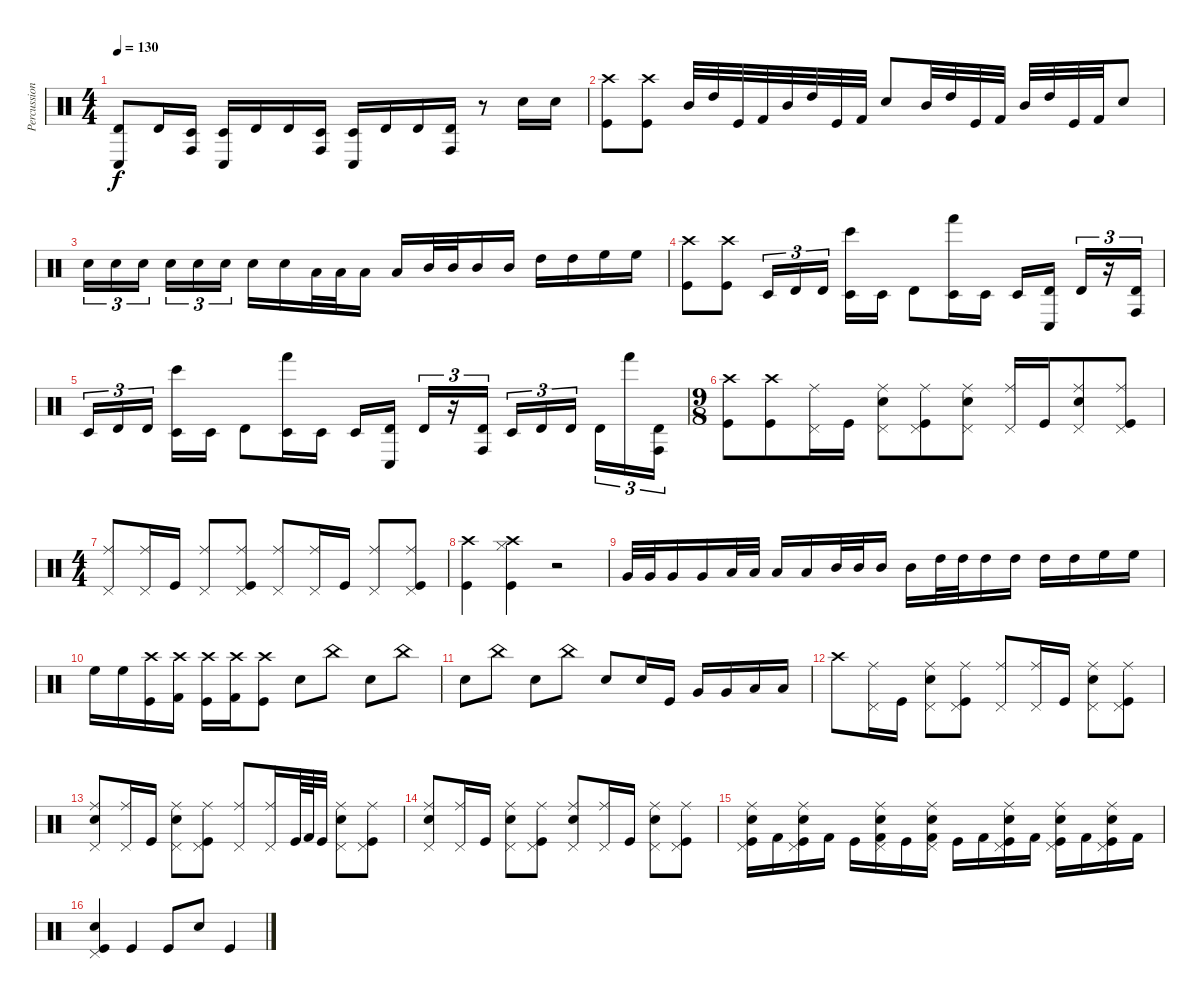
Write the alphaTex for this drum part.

\track ("Percussion" "Percussion") {instrument percussion}
\staff {score}
\articulation defaults
\ts (4 4)
\tempo 130
\clef neutral
\ks c
("Conga low (hit)" "Timbale high (hit)").8{dy f} "Timbale high (hit)".16 ("Conga high (hit)" "Timbale low (hit)").16 ("Conga low (hit)" "Timbale low (hit)").16 "Timbale high (hit)".16 "Timbale high (hit)".16 ("Conga high (hit)" "Timbale low (hit)").16 ("Conga low (hit)" "Timbale low (hit)").16 "Timbale high (hit)".16 "Timbale high (hit)".16 ("Conga high (hit)" "Timbale high (hit)").16 r.8 "Snare (hit) 2".16 "Snare (hit) 2".16 |
("Crash high (hit)" "Kick (hit)").8 ("Crash high (hit)" "Kick (hit)").8 "Mid Tom (hit)".32 "High Tom (hit)".32 "Kick (hit)".32 "Kick (hit) 2".32 "Mid Tom (hit)".32 "High Tom (hit)".32 "Kick (hit)".32 "Kick (hit) 2".32 "Hand Clap (hit)".8 "Mid Tom (hit)".32 "High Tom (hit)".32 "Kick (hit)".32 "Kick (hit) 2".32 "Mid Tom (hit)".32 "High Tom (hit)".32 "Kick (hit)".32 "Kick (hit) 2".32 "Snare (hit) 2".8 |
"Snare (hit) 2".16{tu (3 2)} "Snare (hit) 2".16{tu (3 2)} "Snare (hit) 2".16{tu (3 2)} "Snare (hit) 2".16{tu (3 2)} "Snare (hit) 2".16{tu (3 2)} "Snare (hit) 2".16{tu (3 2)} "Snare (hit) 2".16 "Snare (hit) 2".16 "Low Tom (hit)".32 "Low Tom (hit)".32 "Low Tom (hit)".16 "Low Tom (hit)".16 "Mid Tom (hit)".32 "Mid Tom (hit)".32 "Mid Tom (hit)".16 "Mid Tom (hit)".16 "High Tom (hit)".16 "High Tom (hit)".16 "High Floor Tom (hit)".16 "High Floor Tom (hit)".16 |
("Crash high (hit)" "Kick (hit)").8 ("Crash high (hit)" "Kick (hit)").8 "Timbale low (hit)".16{tu (3 2)} "Timbale high (hit)".16{tu (3 2)} "Timbale high (hit)".16{tu (3 2)} ("Bongo High (hit)" "Timbale low (hit)").16 "Timbale low (hit)".16 "Timbale high (hit)".8 ("Hand (hit)" "Timbale low (hit)").16 "Timbale low (hit)".16 "Timbale low (hit)".16 ("Conga low (hit)" "Timbale high (hit)").16 "Timbale high (hit)".16{tu (3 2)} r.16{tu (3 2)} ("Conga high (hit)" "Timbale high (hit)").16{tu (3 2)} |
"Timbale low (hit)".16{tu (3 2)} "Timbale high (hit)".16{tu (3 2)} "Timbale high (hit)".16{tu (3 2)} ("Bongo High (hit)" "Timbale low (hit)").16 "Timbale low (hit)".16 "Timbale high (hit)".8 ("Hand (hit)" "Timbale low (hit)").16 "Timbale low (hit)".16 "Timbale low (hit)".16 ("Conga low (hit)" "Timbale high (hit)").16 "Timbale high (hit)".16{tu (3 2)} r.16{tu (3 2)} ("Conga high (hit)" "Timbale high (hit)").16{tu (3 2)} "Timbale low (hit)".16{tu (3 2)} "Timbale high (hit)".16{tu (3 2)} "Timbale high (hit)".16{tu (3 2)} "Timbale high (hit)".16{tu (3 2)} "Hand (hit)".16{tu (3 2)} ("Conga high (hit)" "Timbale high (hit)").16{tu (3 2)} |
\ts (9 8)
("Crash high (hit)" "Kick (hit)").8 ("Crash high (hit)" "Kick (hit)").8 ("Pedal Hi-Hat (hit)" "Ride (middle)").16 "Kick (hit)".16 ("Pedal Hi-Hat (hit)" "Ride (middle)" "Snare (hit) 2").8 ("Pedal Hi-Hat (hit)" "Ride (middle)" "Kick (hit)").8 ("Pedal Hi-Hat (hit)" "Ride (middle)" "Snare (hit) 2").8 ("Pedal Hi-Hat (hit)" "Ride (middle)").16 "Kick (hit)".16 ("Pedal Hi-Hat (hit)" "Ride (middle)" "Snare (hit) 2").8 ("Pedal Hi-Hat (hit)" "Ride (middle)" "Kick (hit)").8 |
\ts (4 4)
("Pedal Hi-Hat (hit)" "Ride (middle)").8 ("Pedal Hi-Hat (hit)" "Ride (middle)").16 "Kick (hit)".16 ("Pedal Hi-Hat (hit)" "Ride (middle)").8 ("Pedal Hi-Hat (hit)" "Ride (middle)" "Kick (hit)").8 ("Pedal Hi-Hat (hit)" "Ride (middle)").8 ("Pedal Hi-Hat (hit)" "Ride (middle)").16 "Kick (hit)".16 ("Pedal Hi-Hat (hit)" "Ride (middle)").8 ("Pedal Hi-Hat (hit)" "Ride (middle)" "Kick (hit)").8 |
("Crash high (hit)" "Kick (hit)").4 ("Crash high (hit)" "Hi-Hat (closed)" "Kick (hit)").4 r.2 |
"Very Low Tom (hit)".32 "Very Low Tom (hit)".32 "Very Low Tom (hit)".16 "Very Low Tom (hit)".16 "Low Tom (hit)".32 "Low Tom (hit)".32 "Low Tom (hit)".16 "Low Tom (hit)".16 "Mid Tom (hit)".32 "Mid Tom (hit)".32 "Mid Tom (hit)".16 "Mid Tom (hit)".16 "High Tom (hit)".32 "High Tom (hit)".32 "High Tom (hit)".16 "High Tom (hit)".16 "High Tom (hit)".16 "High Tom (hit)".16 "High Floor Tom (hit)".16 "High Floor Tom (hit)".16 |
"High Floor Tom (hit)".16 "High Floor Tom (hit)".16 ("Kick (hit)" "Crash high (hit)").16 ("Kick (hit) 2" "Crash high (hit)").16 ("Kick (hit)" "Crash high (hit)").16 ("Kick (hit) 2" "Crash high (hit)").16 ("Kick (hit)" "Crash high (hit)").8 "Snare (hit) 2".8 "China (hit)".8 "Snare (hit) 2".8 "China (hit)".8 |
"Snare (hit) 2".8 "China (hit)".8 "Snare (hit) 2".8 "China (hit)".8 "Snare (hit) 2".8 "Snare (hit) 2".16 "Kick (hit)".16 "Very Low Tom (hit)".16 "Very Low Tom (hit)".16 "Low Tom (hit)".16 "Low Tom (hit)".16 |
"Crash high (hit)".8 ("Pedal Hi-Hat (hit)" "Ride (middle)").16 "Kick (hit)".16 ("Pedal Hi-Hat (hit)" "Ride (middle)" "Snare (hit) 2").8 ("Pedal Hi-Hat (hit)" "Ride (middle)" "Kick (hit)").8 ("Pedal Hi-Hat (hit)" "Ride (middle)").8 ("Pedal Hi-Hat (hit)" "Ride (middle)").16 "Kick (hit)".16 ("Pedal Hi-Hat (hit)" "Ride (middle)" "Snare (hit) 2").8 ("Pedal Hi-Hat (hit)" "Ride (middle)" "Kick (hit)").8 |
("Pedal Hi-Hat (hit)" "Ride (middle)" "Snare (hit) 2").8 ("Pedal Hi-Hat (hit)" "Ride (middle)").16 "Kick (hit)".16 ("Pedal Hi-Hat (hit)" "Ride (middle)" "Snare (hit) 2").8 ("Pedal Hi-Hat (hit)" "Ride (middle)" "Kick (hit)").8 ("Pedal Hi-Hat (hit)" "Ride (middle)").8 ("Pedal Hi-Hat (hit)" "Ride (middle)").16 "Kick (hit)".64 "Kick (hit) 2".64 "Kick (hit)".32 ("Pedal Hi-Hat (hit)" "Ride (middle)" "Snare (hit) 2").8 ("Pedal Hi-Hat (hit)" "Ride (middle)" "Kick (hit)").8 |
("Pedal Hi-Hat (hit)" "Ride (middle)" "Snare (hit) 2").8 ("Pedal Hi-Hat (hit)" "Ride (middle)").16 "Kick (hit)".16 ("Pedal Hi-Hat (hit)" "Ride (middle)" "Snare (hit) 2").8 ("Pedal Hi-Hat (hit)" "Ride (middle)" "Kick (hit)").8 ("Pedal Hi-Hat (hit)" "Ride (middle)" "Snare (hit) 2").8 ("Pedal Hi-Hat (hit)" "Ride (middle)").16 "Kick (hit)".16 ("Pedal Hi-Hat (hit)" "Ride (middle)" "Snare (hit) 2").8 ("Pedal Hi-Hat (hit)" "Ride (middle)" "Kick (hit)").8 |
("Snare (hit) 2" "Pedal Hi-Hat (hit)" "Ride (middle)" "Kick (hit)").16 "Kick (hit) 2".16 ("Snare (hit) 2" "Pedal Hi-Hat (hit)" "Ride (middle)" "Kick (hit)").16 "Kick (hit) 2".16 "Kick (hit)".16 ("Snare (hit) 2" "Pedal Hi-Hat (hit)" "Ride (middle)" "Kick (hit) 2").16 "Kick (hit)".16 ("Snare (hit) 2" "Pedal Hi-Hat (hit)" "Ride (middle)" "Kick (hit) 2").16 "Kick (hit)".16 "Kick (hit) 2".16 ("Snare (hit) 2" "Pedal Hi-Hat (hit)" "Ride (middle)" "Kick (hit)").16 "Kick (hit) 2".16 ("Snare (hit) 2" "Pedal Hi-Hat (hit)" "Ride (middle)" "Kick (hit)").16 "Kick (hit) 2".16 ("Snare (hit) 2" "Pedal Hi-Hat (hit)" "Ride (middle)" "Kick (hit)").16 "Kick (hit) 2".16 |
("Snare (hit) 2" "Kick (hit)" "Pedal Hi-Hat (hit)").4 "Kick (hit)".4 "Kick (hit)".8 "Snare (hit) 2".8 "Kick (hit)".4
